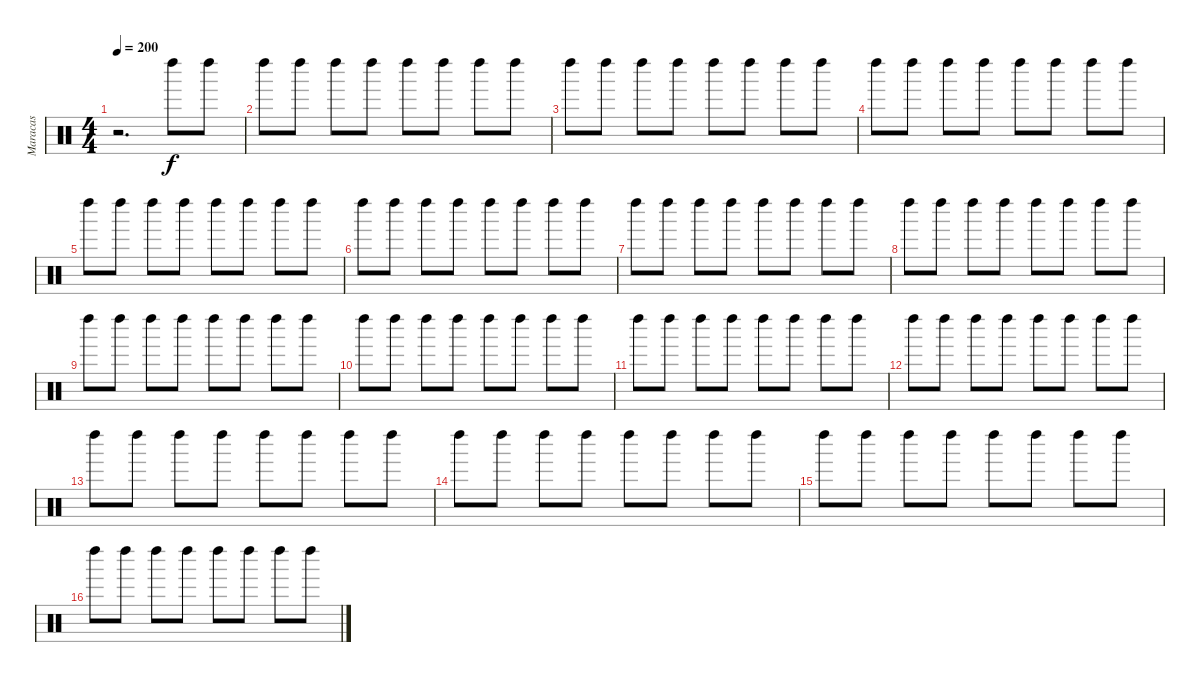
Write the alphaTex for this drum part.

\track ("Maracas" "Maracas") {instrument percussion}
\staff {score}
\articulation defaults
\ts (4 4)
\tempo 200
\clef neutral
\ks c
r.2{d dy f} "Left Maraca (hit)".8 "Left Maraca (hit)".8 |
"Left Maraca (hit)".8 "Left Maraca (hit)".8 "Left Maraca (hit)".8 "Left Maraca (hit)".8 "Left Maraca (hit)".8 "Left Maraca (hit)".8 "Left Maraca (hit)".8 "Left Maraca (hit)".8 |
"Left Maraca (hit)".8 "Left Maraca (hit)".8 "Left Maraca (hit)".8 "Left Maraca (hit)".8 "Left Maraca (hit)".8 "Left Maraca (hit)".8 "Left Maraca (hit)".8 "Left Maraca (hit)".8 |
"Left Maraca (hit)".8 "Left Maraca (hit)".8 "Left Maraca (hit)".8 "Left Maraca (hit)".8 "Left Maraca (hit)".8 "Left Maraca (hit)".8 "Left Maraca (hit)".8 "Left Maraca (hit)".8 |
"Left Maraca (hit)".8 "Left Maraca (hit)".8 "Left Maraca (hit)".8 "Left Maraca (hit)".8 "Left Maraca (hit)".8 "Left Maraca (hit)".8 "Left Maraca (hit)".8 "Left Maraca (hit)".8 |
"Left Maraca (hit)".8 "Left Maraca (hit)".8 "Left Maraca (hit)".8 "Left Maraca (hit)".8 "Left Maraca (hit)".8 "Left Maraca (hit)".8 "Left Maraca (hit)".8 "Left Maraca (hit)".8 |
"Left Maraca (hit)".8 "Left Maraca (hit)".8 "Left Maraca (hit)".8 "Left Maraca (hit)".8 "Left Maraca (hit)".8 "Left Maraca (hit)".8 "Left Maraca (hit)".8 "Left Maraca (hit)".8 |
"Left Maraca (hit)".8 "Left Maraca (hit)".8 "Left Maraca (hit)".8 "Left Maraca (hit)".8 "Left Maraca (hit)".8 "Left Maraca (hit)".8 "Left Maraca (hit)".8 "Left Maraca (hit)".8 |
"Left Maraca (hit)".8 "Left Maraca (hit)".8 "Left Maraca (hit)".8 "Left Maraca (hit)".8 "Left Maraca (hit)".8 "Left Maraca (hit)".8 "Left Maraca (hit)".8 "Left Maraca (hit)".8 |
"Left Maraca (hit)".8 "Left Maraca (hit)".8 "Left Maraca (hit)".8 "Left Maraca (hit)".8 "Left Maraca (hit)".8 "Left Maraca (hit)".8 "Left Maraca (hit)".8 "Left Maraca (hit)".8 |
"Left Maraca (hit)".8 "Left Maraca (hit)".8 "Left Maraca (hit)".8 "Left Maraca (hit)".8 "Left Maraca (hit)".8 "Left Maraca (hit)".8 "Left Maraca (hit)".8 "Left Maraca (hit)".8 |
"Left Maraca (hit)".8 "Left Maraca (hit)".8 "Left Maraca (hit)".8 "Left Maraca (hit)".8 "Left Maraca (hit)".8 "Left Maraca (hit)".8 "Left Maraca (hit)".8 "Left Maraca (hit)".8 |
"Left Maraca (hit)".8 "Left Maraca (hit)".8 "Left Maraca (hit)".8 "Left Maraca (hit)".8 "Left Maraca (hit)".8 "Left Maraca (hit)".8 "Left Maraca (hit)".8 "Left Maraca (hit)".8 |
"Left Maraca (hit)".8 "Left Maraca (hit)".8 "Left Maraca (hit)".8 "Left Maraca (hit)".8 "Left Maraca (hit)".8 "Left Maraca (hit)".8 "Left Maraca (hit)".8 "Left Maraca (hit)".8 |
"Left Maraca (hit)".8 "Left Maraca (hit)".8 "Left Maraca (hit)".8 "Left Maraca (hit)".8 "Left Maraca (hit)".8 "Left Maraca (hit)".8 "Left Maraca (hit)".8 "Left Maraca (hit)".8 |
"Left Maraca (hit)".8 "Left Maraca (hit)".8 "Left Maraca (hit)".8 "Left Maraca (hit)".8 "Left Maraca (hit)".8 "Left Maraca (hit)".8 "Left Maraca (hit)".8 "Left Maraca (hit)".8
